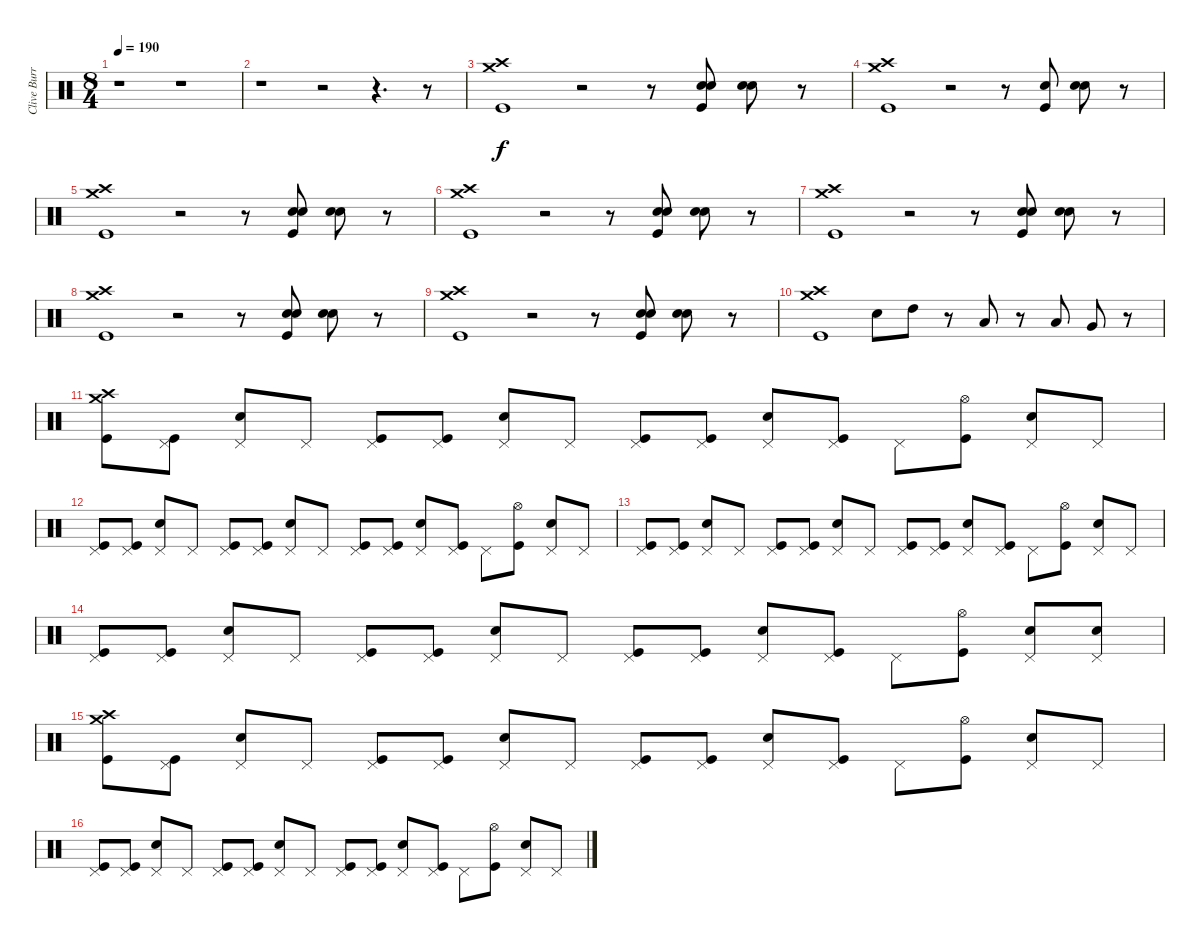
\track ("Clive Burr" "Clive Burr") {instrument percussion}
\staff {score}
\articulation defaults
\ts (8 4)
\tempo 190
\clef neutral
\ks c
r.1{dy f} r.1 |
r.1 r.2 r.4{d} r.8 |
("Crash medium (hit)" "Crash high (hit)" "Kick (hit)").1 r.2 r.8 ("Snare (hit) 2" "Snare (hit) 2" "Kick (hit)").8 ("Snare (hit) 2" "Snare (hit) 2").8 r.8 |
("Crash medium (hit)" "Crash high (hit)" "Kick (hit)").1 r.2 r.8 ("Snare (hit) 2" "Kick (hit)").8 ("Snare (hit) 2" "Snare (hit) 2").8 r.8 |
("Crash medium (hit)" "Crash high (hit)" "Kick (hit)").1 r.2 r.8 ("Snare (hit) 2" "Snare (hit) 2" "Kick (hit)").8 ("Snare (hit) 2" "Snare (hit) 2").8 r.8 |
("Crash medium (hit)" "Crash high (hit)" "Kick (hit)").1 r.2 r.8 ("Snare (hit) 2" "Snare (hit) 2" "Kick (hit)").8 ("Snare (hit) 2" "Snare (hit) 2").8 r.8 |
("Crash medium (hit)" "Crash high (hit)" "Kick (hit)").1 r.2 r.8 ("Snare (hit) 2" "Snare (hit) 2" "Kick (hit)").8 ("Snare (hit) 2" "Snare (hit) 2").8 r.8 |
("Crash medium (hit)" "Crash high (hit)" "Kick (hit)").1 r.2 r.8 ("Snare (hit) 2" "Snare (hit) 2" "Kick (hit)").8 ("Snare (hit) 2" "Snare (hit) 2").8 r.8 |
("Crash medium (hit)" "Crash high (hit)" "Kick (hit)").1 r.2 r.8 ("Snare (hit) 2" "Snare (hit) 2" "Kick (hit)").8 ("Snare (hit) 2" "Snare (hit) 2").8 r.8 |
("Crash medium (hit)" "Crash high (hit)" "Kick (hit)").1 "Snare (hit) 2".8 "High Tom (hit)".8 r.8 "Low Tom (hit)".8 r.8 "Low Tom (hit)".8 "Very Low Tom (hit)".8 r.8 |
("Crash medium (hit)" "Crash high (hit)" "Kick (hit)").8 ("Pedal Hi-Hat (hit)" "Kick (hit)").8 ("Pedal Hi-Hat (hit)" "Snare (hit) 2").8 "Pedal Hi-Hat (hit)".8 ("Pedal Hi-Hat (hit)" "Kick (hit)").8 ("Pedal Hi-Hat (hit)" "Kick (hit)").8 ("Pedal Hi-Hat (hit)" "Snare (hit) 2").8 "Pedal Hi-Hat (hit)".8 ("Pedal Hi-Hat (hit)" "Kick (hit)").8 ("Pedal Hi-Hat (hit)" "Kick (hit)").8 ("Pedal Hi-Hat (hit)" "Snare (hit) 2").8 ("Pedal Hi-Hat (hit)" "Kick (hit)").8 "Pedal Hi-Hat (hit)".8 ("Hi-Hat (open)" "Kick (hit)").8 ("Pedal Hi-Hat (hit)" "Snare (hit) 2").8 "Pedal Hi-Hat (hit)".8 |
("Pedal Hi-Hat (hit)" "Kick (hit)").8 ("Pedal Hi-Hat (hit)" "Kick (hit)").8 ("Pedal Hi-Hat (hit)" "Snare (hit) 2").8 "Pedal Hi-Hat (hit)".8 ("Pedal Hi-Hat (hit)" "Kick (hit)").8 ("Pedal Hi-Hat (hit)" "Kick (hit)").8 ("Pedal Hi-Hat (hit)" "Snare (hit) 2").8 "Pedal Hi-Hat (hit)".8 ("Pedal Hi-Hat (hit)" "Kick (hit)").8 ("Pedal Hi-Hat (hit)" "Kick (hit)").8 ("Pedal Hi-Hat (hit)" "Snare (hit) 2").8 ("Pedal Hi-Hat (hit)" "Kick (hit)").8 "Pedal Hi-Hat (hit)".8 ("Hi-Hat (open)" "Kick (hit)").8 ("Pedal Hi-Hat (hit)" "Snare (hit) 2").8 "Pedal Hi-Hat (hit)".8 |
("Pedal Hi-Hat (hit)" "Kick (hit)").8 ("Pedal Hi-Hat (hit)" "Kick (hit)").8 ("Pedal Hi-Hat (hit)" "Snare (hit) 2").8 "Pedal Hi-Hat (hit)".8 ("Pedal Hi-Hat (hit)" "Kick (hit)").8 ("Pedal Hi-Hat (hit)" "Kick (hit)").8 ("Pedal Hi-Hat (hit)" "Snare (hit) 2").8 "Pedal Hi-Hat (hit)".8 ("Pedal Hi-Hat (hit)" "Kick (hit)").8 ("Pedal Hi-Hat (hit)" "Kick (hit)").8 ("Pedal Hi-Hat (hit)" "Snare (hit) 2").8 ("Pedal Hi-Hat (hit)" "Kick (hit)").8 "Pedal Hi-Hat (hit)".8 ("Hi-Hat (open)" "Kick (hit)").8 ("Pedal Hi-Hat (hit)" "Snare (hit) 2").8 "Pedal Hi-Hat (hit)".8 |
("Pedal Hi-Hat (hit)" "Kick (hit)").8 ("Pedal Hi-Hat (hit)" "Kick (hit)").8 ("Pedal Hi-Hat (hit)" "Snare (hit) 2").8 "Pedal Hi-Hat (hit)".8 ("Pedal Hi-Hat (hit)" "Kick (hit)").8 ("Pedal Hi-Hat (hit)" "Kick (hit)").8 ("Pedal Hi-Hat (hit)" "Snare (hit) 2").8 "Pedal Hi-Hat (hit)".8 ("Pedal Hi-Hat (hit)" "Kick (hit)").8 ("Pedal Hi-Hat (hit)" "Kick (hit)").8 ("Pedal Hi-Hat (hit)" "Snare (hit) 2").8 ("Pedal Hi-Hat (hit)" "Kick (hit)").8 "Pedal Hi-Hat (hit)".8 ("Hi-Hat (open)" "Kick (hit)").8 ("Pedal Hi-Hat (hit)" "Snare (hit) 2").8 ("Pedal Hi-Hat (hit)" "Snare (hit) 2").8 |
("Crash medium (hit)" "Crash high (hit)" "Kick (hit)").8 ("Pedal Hi-Hat (hit)" "Kick (hit)").8 ("Pedal Hi-Hat (hit)" "Snare (hit) 2").8 "Pedal Hi-Hat (hit)".8 ("Pedal Hi-Hat (hit)" "Kick (hit)").8 ("Pedal Hi-Hat (hit)" "Kick (hit)").8 ("Pedal Hi-Hat (hit)" "Snare (hit) 2").8 "Pedal Hi-Hat (hit)".8 ("Pedal Hi-Hat (hit)" "Kick (hit)").8 ("Pedal Hi-Hat (hit)" "Kick (hit)").8 ("Pedal Hi-Hat (hit)" "Snare (hit) 2").8 ("Pedal Hi-Hat (hit)" "Kick (hit)").8 "Pedal Hi-Hat (hit)".8 ("Hi-Hat (open)" "Kick (hit)").8 ("Pedal Hi-Hat (hit)" "Snare (hit) 2").8 "Pedal Hi-Hat (hit)".8 |
("Pedal Hi-Hat (hit)" "Kick (hit)").8 ("Pedal Hi-Hat (hit)" "Kick (hit)").8 ("Pedal Hi-Hat (hit)" "Snare (hit) 2").8 "Pedal Hi-Hat (hit)".8 ("Pedal Hi-Hat (hit)" "Kick (hit)").8 ("Pedal Hi-Hat (hit)" "Kick (hit)").8 ("Pedal Hi-Hat (hit)" "Snare (hit) 2").8 "Pedal Hi-Hat (hit)".8 ("Pedal Hi-Hat (hit)" "Kick (hit)").8 ("Pedal Hi-Hat (hit)" "Kick (hit)").8 ("Pedal Hi-Hat (hit)" "Snare (hit) 2").8 ("Pedal Hi-Hat (hit)" "Kick (hit)").8 "Pedal Hi-Hat (hit)".8 ("Hi-Hat (open)" "Kick (hit)").8 ("Pedal Hi-Hat (hit)" "Snare (hit) 2").8 "Pedal Hi-Hat (hit)".8
